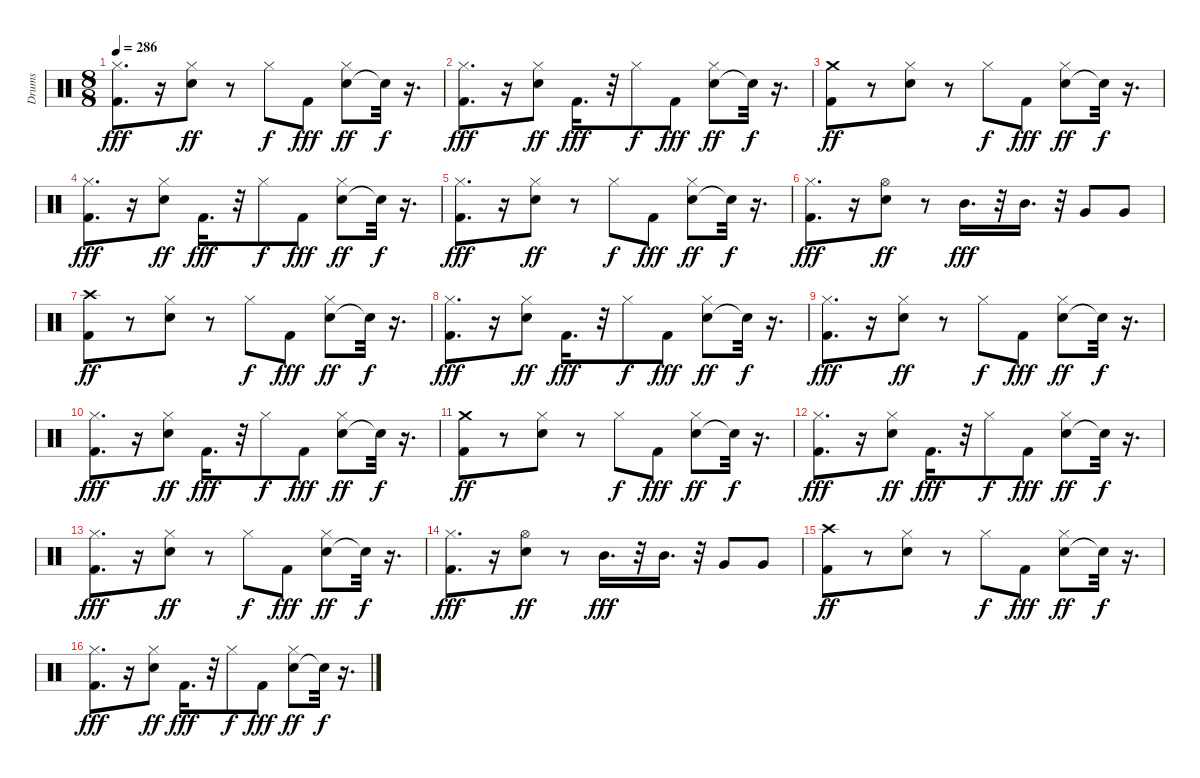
\track ("Drums" "Drums") {instrument percussion}
\staff {score}
\articulation defaults
\ts (8 8)
\tempo 286
\clef neutral
\ks c
("Kick (hit) 2" "Hi-Hat (closed)").8{d dy fff} r.16 ("Snare (hit) 2" "Hi-Hat (closed)").8{dy ff} r.8 "Hi-Hat (closed)".8{dy f} "Kick (hit) 2".8{dy fff} ("Snare (hit) 2" "Hi-Hat (closed)").8{dy ff} "Snare (hit)"{t}.32{dy f} r.16{d} |
("Kick (hit) 2" "Hi-Hat (closed)").8{d dy fff} r.16 ("Snare (hit) 2" "Hi-Hat (closed)").8{dy ff} "Kick (hit) 2".16{d dy fff} r.32 "Hi-Hat (closed)".8{dy f} "Kick (hit) 2".8{dy fff} ("Snare (hit) 2" "Hi-Hat (closed)").8{dy ff} "Snare (hit)"{t}.32{dy f} r.16{d} |
("Kick (hit) 2" "Crash medium (hit)").8{dy ff} r.8 ("Snare (hit) 2" "Hi-Hat (closed)").8 r.8 "Hi-Hat (closed)".8{dy f} "Kick (hit) 2".8{dy fff} ("Snare (hit) 2" "Hi-Hat (closed)").8{dy ff} "Snare (hit)"{t}.32{dy f} r.16{d} |
("Kick (hit) 2" "Hi-Hat (closed)").8{d dy fff} r.16 ("Snare (hit) 2" "Hi-Hat (closed)").8{dy ff} "Kick (hit) 2".16{d dy fff} r.32 "Hi-Hat (closed)".8{dy f} "Kick (hit) 2".8{dy fff} ("Snare (hit) 2" "Hi-Hat (closed)").8{dy ff} "Snare (hit)"{t}.32{dy f} r.16{d} |
("Kick (hit) 2" "Hi-Hat (closed)").8{d dy fff} r.16 ("Snare (hit) 2" "Hi-Hat (closed)").8{dy ff} r.8 "Hi-Hat (closed)".8{dy f} "Kick (hit) 2".8{dy fff} ("Snare (hit) 2" "Hi-Hat (closed)").8{dy ff} "Snare (hit)"{t}.32{dy f} r.16{d} |
("Kick (hit) 2" "Hi-Hat (closed)").8{d dy fff} r.16 ("Snare (hit) 2" "Hi-Hat (open)").8{dy ff} r.8 "Mid Tom (hit)".16{d dy fff} r.32 "Mid Tom (hit)".16{d} r.32 "Very Low Tom (hit)".8 "Very Low Tom (hit)".8 |
("Kick (hit) 2" "Crash high (hit)").8{dy ff} r.8 ("Snare (hit) 2" "Hi-Hat (closed)").8 r.8 "Hi-Hat (closed)".8{dy f} "Kick (hit) 2".8{dy fff} ("Snare (hit) 2" "Hi-Hat (closed)").8{dy ff} "Snare (hit)"{t}.32{dy f} r.16{d} |
("Kick (hit) 2" "Hi-Hat (closed)").8{d dy fff} r.16 ("Snare (hit) 2" "Hi-Hat (closed)").8{dy ff} "Kick (hit) 2".16{d dy fff} r.32 "Hi-Hat (closed)".8{dy f} "Kick (hit) 2".8{dy fff} ("Snare (hit) 2" "Hi-Hat (closed)").8{dy ff} "Snare (hit)"{t}.32{dy f} r.16{d} |
("Kick (hit) 2" "Hi-Hat (closed)").8{d dy fff} r.16 ("Snare (hit) 2" "Hi-Hat (closed)").8{dy ff} r.8 "Hi-Hat (closed)".8{dy f} "Kick (hit) 2".8{dy fff} ("Snare (hit) 2" "Hi-Hat (closed)").8{dy ff} "Snare (hit)"{t}.32{dy f} r.16{d} |
("Kick (hit) 2" "Hi-Hat (closed)").8{d dy fff} r.16 ("Snare (hit) 2" "Hi-Hat (closed)").8{dy ff} "Kick (hit) 2".16{d dy fff} r.32 "Hi-Hat (closed)".8{dy f} "Kick (hit) 2".8{dy fff} ("Snare (hit) 2" "Hi-Hat (closed)").8{dy ff} "Snare (hit)"{t}.32{dy f} r.16{d} |
("Kick (hit) 2" "Crash medium (hit)").8{dy ff} r.8 ("Snare (hit) 2" "Hi-Hat (closed)").8 r.8 "Hi-Hat (closed)".8{dy f} "Kick (hit) 2".8{dy fff} ("Snare (hit) 2" "Hi-Hat (closed)").8{dy ff} "Snare (hit)"{t}.32{dy f} r.16{d} |
("Kick (hit) 2" "Hi-Hat (closed)").8{d dy fff} r.16 ("Snare (hit) 2" "Hi-Hat (closed)").8{dy ff} "Kick (hit) 2".16{d dy fff} r.32 "Hi-Hat (closed)".8{dy f} "Kick (hit) 2".8{dy fff} ("Snare (hit) 2" "Hi-Hat (closed)").8{dy ff} "Snare (hit)"{t}.32{dy f} r.16{d} |
("Kick (hit) 2" "Hi-Hat (closed)").8{d dy fff} r.16 ("Snare (hit) 2" "Hi-Hat (closed)").8{dy ff} r.8 "Hi-Hat (closed)".8{dy f} "Kick (hit) 2".8{dy fff} ("Snare (hit) 2" "Hi-Hat (closed)").8{dy ff} "Snare (hit)"{t}.32{dy f} r.16{d} |
("Kick (hit) 2" "Hi-Hat (closed)").8{d dy fff} r.16 ("Snare (hit) 2" "Hi-Hat (open)").8{dy ff} r.8 "Mid Tom (hit)".16{d dy fff} r.32 "Mid Tom (hit)".16{d} r.32 "Very Low Tom (hit)".8 "Very Low Tom (hit)".8 |
("Kick (hit) 2" "Crash high (hit)").8{dy ff} r.8 ("Snare (hit) 2" "Hi-Hat (closed)").8 r.8 "Hi-Hat (closed)".8{dy f} "Kick (hit) 2".8{dy fff} ("Snare (hit) 2" "Hi-Hat (closed)").8{dy ff} "Snare (hit)"{t}.32{dy f} r.16{d} |
("Kick (hit) 2" "Hi-Hat (closed)").8{d dy fff} r.16 ("Snare (hit) 2" "Hi-Hat (closed)").8{dy ff} "Kick (hit) 2".16{d dy fff} r.32 "Hi-Hat (closed)".8{dy f} "Kick (hit) 2".8{dy fff} ("Snare (hit) 2" "Hi-Hat (closed)").8{dy ff} "Snare (hit)"{t}.32{dy f} r.16{d}
